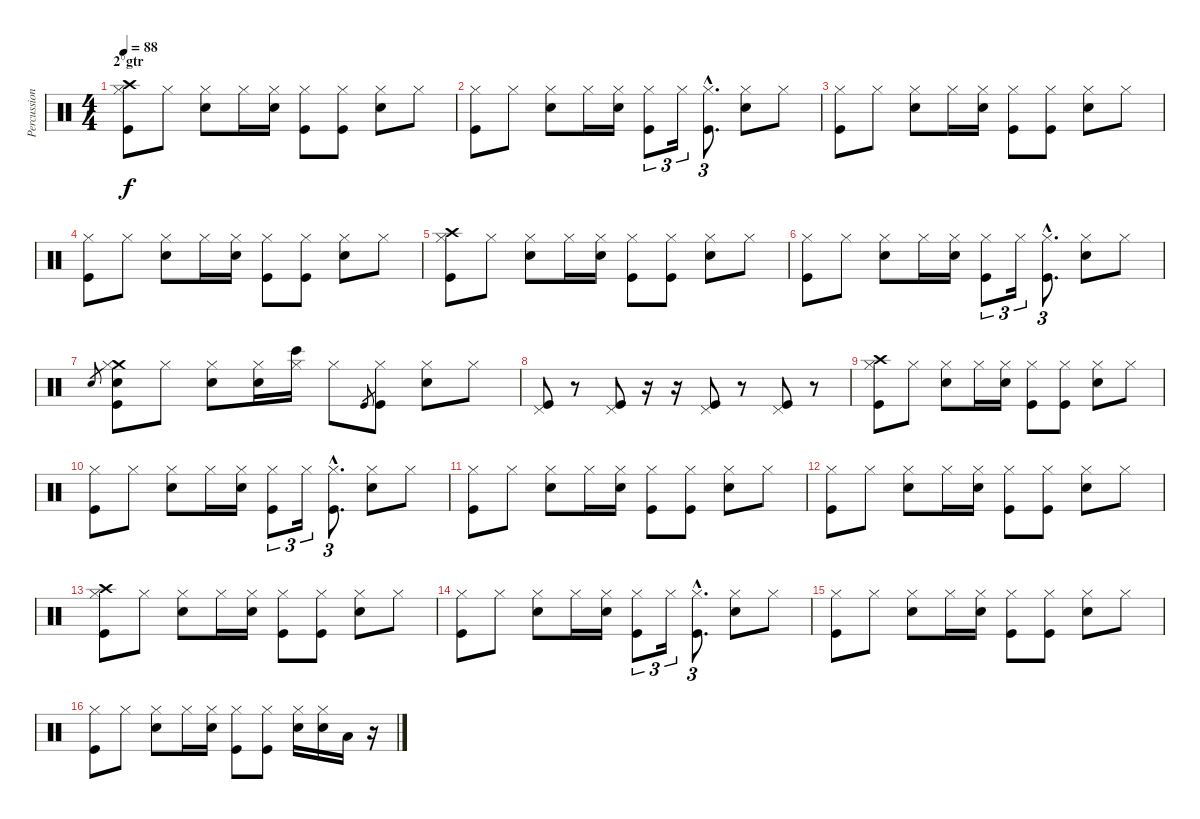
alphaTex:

\track ("Percussions" "Percussion") {instrument percussion}
\staff {score}
\articulation defaults
\ts (4 4)
\section ("" "2°gtr")
\tempo 88
\clef neutral
\ks c
("Crash high (hit)" "Hi-Hat (closed)" "Kick (hit)").8{dy f} "Hi-Hat (closed)".8 ("Electric Snare (hit)" "Hi-Hat (closed)").8 "Hi-Hat (closed)".16 ("Electric Snare (hit)" "Hi-Hat (closed)").16 ("Hi-Hat (closed)" "Kick (hit)").8 ("Hi-Hat (closed)" "Kick (hit)").8 ("Electric Snare (hit)" "Hi-Hat (closed)").8 "Hi-Hat (closed)".8 |
("Hi-Hat (closed)" "Kick (hit)").8 "Hi-Hat (closed)".8 ("Electric Snare (hit)" "Hi-Hat (closed)").8 "Hi-Hat (closed)".16 ("Electric Snare (hit)" "Hi-Hat (closed)").16 ("Hi-Hat (closed)" "Kick (hit)").8{tu (3 2)} "Hi-Hat (closed)".16{tu (3 2)} ("Hi-Hat (closed)"{hac} "Kick (hit)"{hac}).8{d tu (3 2)} ("Electric Snare (hit)" "Hi-Hat (closed)").8 "Hi-Hat (closed)".8 |
("Hi-Hat (closed)" "Kick (hit)").8 "Hi-Hat (closed)".8 ("Electric Snare (hit)" "Hi-Hat (closed)").8 "Hi-Hat (closed)".16 ("Electric Snare (hit)" "Hi-Hat (closed)").16 ("Hi-Hat (closed)" "Kick (hit)").8 ("Hi-Hat (closed)" "Kick (hit)").8 ("Electric Snare (hit)" "Hi-Hat (closed)").8 "Hi-Hat (closed)".8 |
("Hi-Hat (closed)" "Kick (hit)").8 "Hi-Hat (closed)".8 ("Electric Snare (hit)" "Hi-Hat (closed)").8 "Hi-Hat (closed)".16 ("Electric Snare (hit)" "Hi-Hat (closed)").16 ("Hi-Hat (closed)" "Kick (hit)").8 ("Hi-Hat (closed)" "Kick (hit)").8 ("Electric Snare (hit)" "Hi-Hat (closed)").8 "Hi-Hat (closed)".8 |
("Crash high (hit)" "Hi-Hat (closed)" "Kick (hit)").8 "Hi-Hat (closed)".8 ("Electric Snare (hit)" "Hi-Hat (closed)").8 "Hi-Hat (closed)".16 ("Electric Snare (hit)" "Hi-Hat (closed)").16 ("Hi-Hat (closed)" "Kick (hit)").8 ("Hi-Hat (closed)" "Kick (hit)").8 ("Electric Snare (hit)" "Hi-Hat (closed)").8 "Hi-Hat (closed)".8 |
("Hi-Hat (closed)" "Kick (hit)").8 "Hi-Hat (closed)".8 ("Electric Snare (hit)" "Hi-Hat (closed)").8 "Hi-Hat (closed)".16 ("Electric Snare (hit)" "Hi-Hat (closed)").16 ("Hi-Hat (closed)" "Kick (hit)").8{tu (3 2)} "Hi-Hat (closed)".16{tu (3 2)} ("Hi-Hat (closed)"{hac} "Kick (hit)"{hac}).8{d tu (3 2)} ("Electric Snare (hit)" "Hi-Hat (closed)").8 "Hi-Hat (closed)".8 |
"Electric Snare (hit)".8{gr} ("Crash medium (hit)" "Hi-Hat (closed)" "Electric Snare (hit)" "Kick (hit)").8 "Hi-Hat (closed)".8 ("Electric Snare (hit)" "Hi-Hat (closed)").8 ("Electric Snare (hit)" "Hi-Hat (closed)").16 ("Bongo High (hit)" "Hi-Hat (closed)").16 "Hi-Hat (closed)".8 "Kick (hit)".8{gr} ("Hi-Hat (closed)" "Kick (hit)").8 ("Electric Snare (hit)" "Hi-Hat (closed)").8 "Hi-Hat (closed)".8 |
("Pedal Hi-Hat (hit)" "Kick (hit)").8{volume 15} r.8 ("Pedal Hi-Hat (hit)" "Kick (hit)").8 r.16 r.16 ("Pedal Hi-Hat (hit)" "Kick (hit)").8 r.8 ("Pedal Hi-Hat (hit)" "Kick (hit)").8 r.8 |
("Crash high (hit)" "Hi-Hat (closed)" "Kick (hit)").8{volume 9} "Hi-Hat (closed)".8 ("Electric Snare (hit)" "Hi-Hat (closed)").8 "Hi-Hat (closed)".16 ("Electric Snare (hit)" "Hi-Hat (closed)").16 ("Hi-Hat (closed)" "Kick (hit)").8 ("Hi-Hat (closed)" "Kick (hit)").8 ("Electric Snare (hit)" "Hi-Hat (closed)").8 "Hi-Hat (closed)".8 |
("Hi-Hat (closed)" "Kick (hit)").8 "Hi-Hat (closed)".8 ("Electric Snare (hit)" "Hi-Hat (closed)").8 "Hi-Hat (closed)".16 ("Electric Snare (hit)" "Hi-Hat (closed)").16 ("Hi-Hat (closed)" "Kick (hit)").8{tu (3 2)} "Hi-Hat (closed)".16{tu (3 2)} ("Hi-Hat (closed)"{hac} "Kick (hit)"{hac}).8{d tu (3 2)} ("Electric Snare (hit)" "Hi-Hat (closed)").8 "Hi-Hat (closed)".8 |
("Hi-Hat (closed)" "Kick (hit)").8 "Hi-Hat (closed)".8 ("Electric Snare (hit)" "Hi-Hat (closed)").8 "Hi-Hat (closed)".16 ("Electric Snare (hit)" "Hi-Hat (closed)").16 ("Hi-Hat (closed)" "Kick (hit)").8 ("Hi-Hat (closed)" "Kick (hit)").8 ("Electric Snare (hit)" "Hi-Hat (closed)").8 "Hi-Hat (closed)".8 |
("Hi-Hat (closed)" "Kick (hit)").8 "Hi-Hat (closed)".8 ("Electric Snare (hit)" "Hi-Hat (closed)").8 "Hi-Hat (closed)".16 ("Electric Snare (hit)" "Hi-Hat (closed)").16 ("Hi-Hat (closed)" "Kick (hit)").8 ("Hi-Hat (closed)" "Kick (hit)").8 ("Electric Snare (hit)" "Hi-Hat (closed)").8 "Hi-Hat (closed)".8 |
("Crash high (hit)" "Hi-Hat (closed)" "Kick (hit)").8 "Hi-Hat (closed)".8 ("Electric Snare (hit)" "Hi-Hat (closed)").8 "Hi-Hat (closed)".16 ("Electric Snare (hit)" "Hi-Hat (closed)").16 ("Hi-Hat (closed)" "Kick (hit)").8 ("Hi-Hat (closed)" "Kick (hit)").8 ("Electric Snare (hit)" "Hi-Hat (closed)").8 "Hi-Hat (closed)".8 |
("Hi-Hat (closed)" "Kick (hit)").8 "Hi-Hat (closed)".8 ("Electric Snare (hit)" "Hi-Hat (closed)").8 "Hi-Hat (closed)".16 ("Electric Snare (hit)" "Hi-Hat (closed)").16 ("Hi-Hat (closed)" "Kick (hit)").8{tu (3 2)} "Hi-Hat (closed)".16{tu (3 2)} ("Hi-Hat (closed)"{hac} "Kick (hit)"{hac}).8{d tu (3 2)} ("Electric Snare (hit)" "Hi-Hat (closed)").8 "Hi-Hat (closed)".8 |
("Hi-Hat (closed)" "Kick (hit)").8 "Hi-Hat (closed)".8 ("Electric Snare (hit)" "Hi-Hat (closed)").8 "Hi-Hat (closed)".16 ("Electric Snare (hit)" "Hi-Hat (closed)").16 ("Hi-Hat (closed)" "Kick (hit)").8 ("Hi-Hat (closed)" "Kick (hit)").8 ("Electric Snare (hit)" "Hi-Hat (closed)").8 "Hi-Hat (closed)".8 |
("Hi-Hat (closed)" "Kick (hit)").8 "Hi-Hat (closed)".8 ("Electric Snare (hit)" "Hi-Hat (closed)").8 "Hi-Hat (closed)".16 ("Electric Snare (hit)" "Hi-Hat (closed)").16 ("Hi-Hat (closed)" "Kick (hit)").8 ("Hi-Hat (closed)" "Kick (hit)").8 ("Electric Snare (hit)" "Hi-Hat (closed)").16 ("Electric Snare (hit)" "Hi-Hat (closed)").16 "Low Tom (hit)".16 r.16
